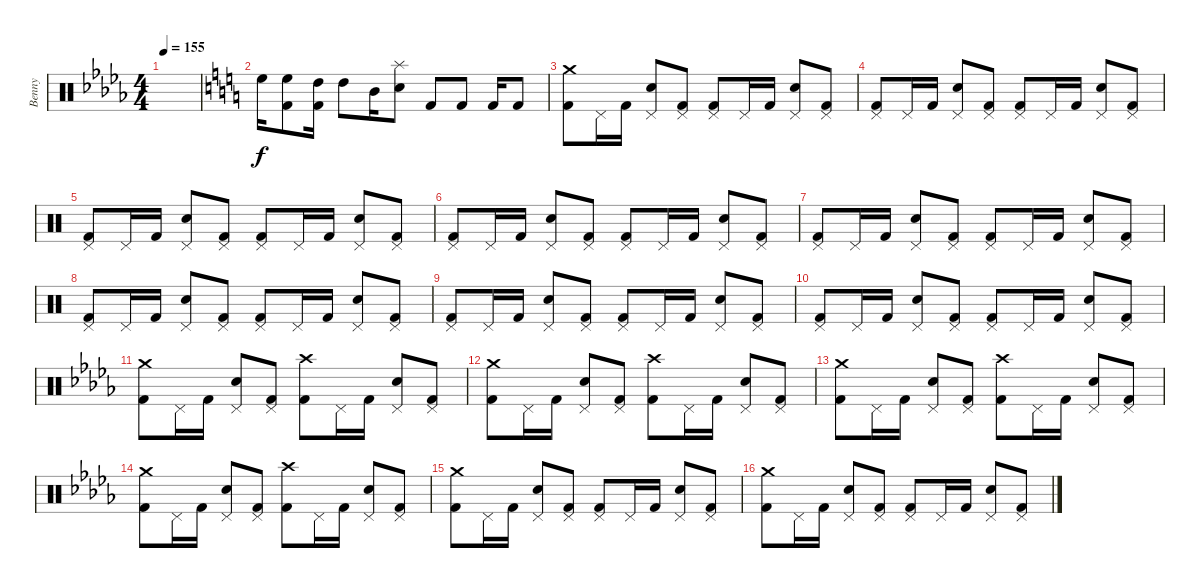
\track ("Benny" "Benny") {instrument percussion}
\staff {score}
\articulation defaults
\ts (4 4)
\tempo 155
\clef neutral
\ks db
|
\ks c "High Floor Tom (hit)".16
("High Floor Tom (hit)" "Kick (hit) 2").8 ("High Tom (hit)" "Kick (hit) 2").16 "High Tom (hit)".8 "Mid Tom (hit)".16 ("Splash (hit)" "Snare (hit) 2").8 "Kick (hit) 2".8 "Kick (hit) 2".8 "Kick (hit) 2".16 "Kick (hit) 2".8 |
("Crash medium (hit)" "Kick (hit) 2").8 "Pedal Hi-Hat (hit)".16 "Kick (hit) 2".16 ("Pedal Hi-Hat (hit)" "Snare (hit) 2").8 ("Pedal Hi-Hat (hit)" "Kick (hit) 2").8 ("Pedal Hi-Hat (hit)" "Kick (hit) 2").8 "Pedal Hi-Hat (hit)".16 "Kick (hit) 2".16 ("Pedal Hi-Hat (hit)" "Snare (hit) 2").8 ("Pedal Hi-Hat (hit)" "Kick (hit) 2").8 |
("Pedal Hi-Hat (hit)" "Kick (hit) 2").8 "Pedal Hi-Hat (hit)".16 "Kick (hit) 2".16 ("Pedal Hi-Hat (hit)" "Snare (hit) 2").8 ("Pedal Hi-Hat (hit)" "Kick (hit) 2").8 ("Pedal Hi-Hat (hit)" "Kick (hit) 2").8 "Pedal Hi-Hat (hit)".16 "Kick (hit) 2".16 ("Pedal Hi-Hat (hit)" "Snare (hit) 2").8 ("Pedal Hi-Hat (hit)" "Kick (hit) 2").8 |
("Pedal Hi-Hat (hit)" "Kick (hit) 2").8 "Pedal Hi-Hat (hit)".16 "Kick (hit) 2".16 ("Pedal Hi-Hat (hit)" "Snare (hit) 2").8 ("Pedal Hi-Hat (hit)" "Kick (hit) 2").8 ("Pedal Hi-Hat (hit)" "Kick (hit) 2").8 "Pedal Hi-Hat (hit)".16 "Kick (hit) 2".16 ("Pedal Hi-Hat (hit)" "Snare (hit) 2").8 ("Pedal Hi-Hat (hit)" "Kick (hit) 2").8 |
("Pedal Hi-Hat (hit)" "Kick (hit) 2").8 "Pedal Hi-Hat (hit)".16 "Kick (hit) 2".16 ("Pedal Hi-Hat (hit)" "Snare (hit) 2").8 ("Pedal Hi-Hat (hit)" "Kick (hit) 2").8 ("Pedal Hi-Hat (hit)" "Kick (hit) 2").8 "Pedal Hi-Hat (hit)".16 "Kick (hit) 2".16 ("Pedal Hi-Hat (hit)" "Snare (hit) 2").8 ("Pedal Hi-Hat (hit)" "Kick (hit) 2").8 |
("Pedal Hi-Hat (hit)" "Kick (hit) 2").8 "Pedal Hi-Hat (hit)".16 "Kick (hit) 2".16 ("Pedal Hi-Hat (hit)" "Snare (hit) 2").8 ("Pedal Hi-Hat (hit)" "Kick (hit) 2").8 ("Pedal Hi-Hat (hit)" "Kick (hit) 2").8 "Pedal Hi-Hat (hit)".16 "Kick (hit) 2".16 ("Pedal Hi-Hat (hit)" "Snare (hit) 2").8 ("Pedal Hi-Hat (hit)" "Kick (hit) 2").8 |
("Pedal Hi-Hat (hit)" "Kick (hit) 2").8 "Pedal Hi-Hat (hit)".16 "Kick (hit) 2".16 ("Pedal Hi-Hat (hit)" "Snare (hit) 2").8 ("Pedal Hi-Hat (hit)" "Kick (hit) 2").8 ("Pedal Hi-Hat (hit)" "Kick (hit) 2").8 "Pedal Hi-Hat (hit)".16 "Kick (hit) 2".16 ("Pedal Hi-Hat (hit)" "Snare (hit) 2").8 ("Pedal Hi-Hat (hit)" "Kick (hit) 2").8 |
("Pedal Hi-Hat (hit)" "Kick (hit) 2").8 "Pedal Hi-Hat (hit)".16 "Kick (hit) 2".16 ("Pedal Hi-Hat (hit)" "Snare (hit) 2").8 ("Pedal Hi-Hat (hit)" "Kick (hit) 2").8 ("Pedal Hi-Hat (hit)" "Kick (hit) 2").8 "Pedal Hi-Hat (hit)".16 "Kick (hit) 2".16 ("Pedal Hi-Hat (hit)" "Snare (hit) 2").8 ("Pedal Hi-Hat (hit)" "Kick (hit) 2").8 |
("Pedal Hi-Hat (hit)" "Kick (hit) 2").8 "Pedal Hi-Hat (hit)".16 "Kick (hit) 2".16 ("Pedal Hi-Hat (hit)" "Snare (hit) 2").8 ("Pedal Hi-Hat (hit)" "Kick (hit) 2").8 ("Pedal Hi-Hat (hit)" "Kick (hit) 2").8 "Pedal Hi-Hat (hit)".16 "Kick (hit) 2".16 ("Pedal Hi-Hat (hit)" "Snare (hit) 2").8 ("Pedal Hi-Hat (hit)" "Kick (hit) 2").8 |
\ks db
("Crash medium (hit)" "Kick (hit) 2").8 "Pedal Hi-Hat (hit)".16 "Kick (hit) 2".16 ("Pedal Hi-Hat (hit)" "Snare (hit) 2").8 ("Pedal Hi-Hat (hit)" "Kick (hit) 2").8 ("Crash high (hit)" "Kick (hit) 2").8 "Pedal Hi-Hat (hit)".16 "Kick (hit) 2".16 ("Pedal Hi-Hat (hit)" "Snare (hit) 2").8 ("Pedal Hi-Hat (hit)" "Kick (hit) 2").8 |
("Crash medium (hit)" "Kick (hit) 2").8 "Pedal Hi-Hat (hit)".16 "Kick (hit) 2".16 ("Pedal Hi-Hat (hit)" "Snare (hit) 2").8 ("Pedal Hi-Hat (hit)" "Kick (hit) 2").8 ("Crash high (hit)" "Kick (hit) 2").8 "Pedal Hi-Hat (hit)".16 "Kick (hit) 2".16 ("Pedal Hi-Hat (hit)" "Snare (hit) 2").8 ("Pedal Hi-Hat (hit)" "Kick (hit) 2").8 |
("Crash medium (hit)" "Kick (hit) 2").8 "Pedal Hi-Hat (hit)".16 "Kick (hit) 2".16 ("Pedal Hi-Hat (hit)" "Snare (hit) 2").8 ("Pedal Hi-Hat (hit)" "Kick (hit) 2").8 ("Crash high (hit)" "Kick (hit) 2").8 "Pedal Hi-Hat (hit)".16 "Kick (hit) 2".16 ("Pedal Hi-Hat (hit)" "Snare (hit) 2").8 ("Pedal Hi-Hat (hit)" "Kick (hit) 2").8 |
("Crash medium (hit)" "Kick (hit) 2").8 "Pedal Hi-Hat (hit)".16 "Kick (hit) 2".16 ("Pedal Hi-Hat (hit)" "Snare (hit) 2").8 ("Pedal Hi-Hat (hit)" "Kick (hit) 2").8 ("Crash high (hit)" "Kick (hit) 2").8 "Pedal Hi-Hat (hit)".16 "Kick (hit) 2".16 ("Pedal Hi-Hat (hit)" "Snare (hit) 2").8 ("Pedal Hi-Hat (hit)" "Kick (hit) 2").8 |
("Crash medium (hit)" "Kick (hit) 2").8 "Pedal Hi-Hat (hit)".16 "Kick (hit) 2".16 ("Pedal Hi-Hat (hit)" "Snare (hit) 2").8 ("Pedal Hi-Hat (hit)" "Kick (hit) 2").8 ("Pedal Hi-Hat (hit)" "Kick (hit) 2").8 "Pedal Hi-Hat (hit)".16 "Kick (hit) 2".16 ("Pedal Hi-Hat (hit)" "Snare (hit) 2").8 ("Pedal Hi-Hat (hit)" "Kick (hit) 2").8 |
("Crash medium (hit)" "Kick (hit) 2").8 "Pedal Hi-Hat (hit)".16 "Kick (hit) 2".16 ("Pedal Hi-Hat (hit)" "Snare (hit) 2").8 ("Pedal Hi-Hat (hit)" "Kick (hit) 2").8 ("Pedal Hi-Hat (hit)" "Kick (hit) 2").8 "Pedal Hi-Hat (hit)".16 "Kick (hit) 2".16 ("Pedal Hi-Hat (hit)" "Snare (hit) 2").8 ("Pedal Hi-Hat (hit)" "Kick (hit) 2").8
